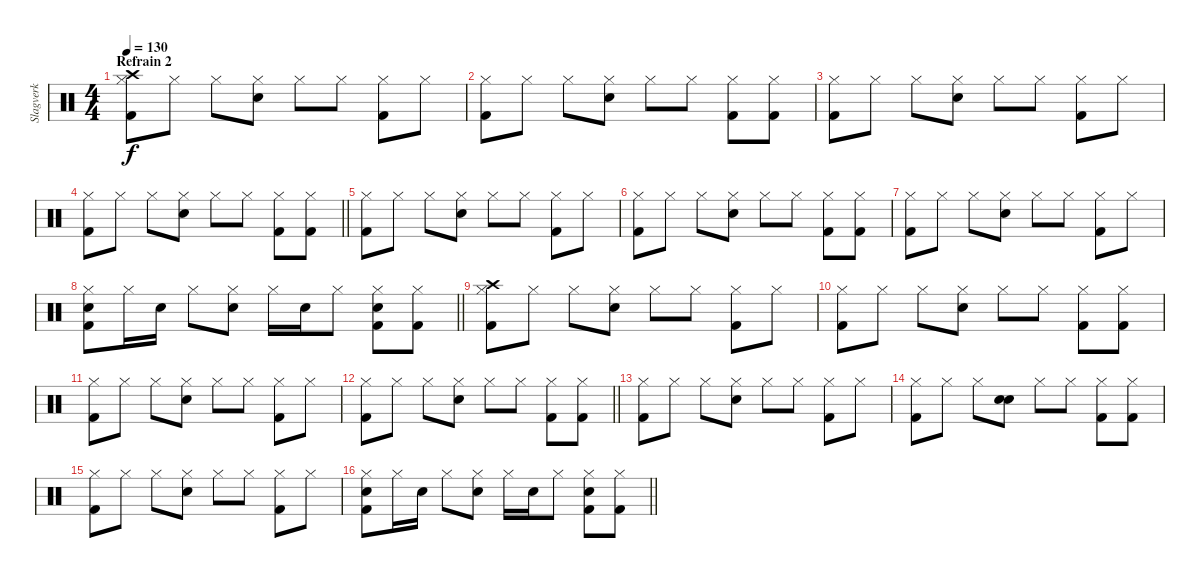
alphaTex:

\track ("Slagverk" "Slagverk") {instrument percussion}
\staff {score}
\articulation defaults
\ts (4 4)
\section ("" "Refrain 2")
\tempo 130
\clef neutral
\ks c
("Hi-Hat (closed)" "Kick (hit) 2" "Crash high (hit)").8{dy f} "Hi-Hat (closed)".8 "Hi-Hat (closed)".8 ("Hi-Hat (closed)" "Snare (hit) 2").8 "Hi-Hat (closed)".8 "Hi-Hat (closed)".8 ("Hi-Hat (closed)" "Kick (hit) 2").8 "Hi-Hat (closed)".8 |
("Hi-Hat (closed)" "Kick (hit) 2").8 "Hi-Hat (closed)".8 "Hi-Hat (closed)".8 ("Hi-Hat (closed)" "Snare (hit) 2").8 "Hi-Hat (closed)".8 "Hi-Hat (closed)".8 ("Hi-Hat (closed)" "Kick (hit) 2").8 ("Hi-Hat (closed)" "Kick (hit) 2").8 |
("Hi-Hat (closed)" "Kick (hit) 2").8 "Hi-Hat (closed)".8 "Hi-Hat (closed)".8 ("Hi-Hat (closed)" "Snare (hit) 2").8 "Hi-Hat (closed)".8 "Hi-Hat (closed)".8 ("Hi-Hat (closed)" "Kick (hit) 2").8 "Hi-Hat (closed)".8 |
\barLineRight lightlight
("Hi-Hat (closed)" "Kick (hit) 2").8 "Hi-Hat (closed)".8 "Hi-Hat (closed)".8 ("Hi-Hat (closed)" "Snare (hit) 2").8 "Hi-Hat (closed)".8 "Hi-Hat (closed)".8 ("Hi-Hat (closed)" "Kick (hit) 2").8 ("Hi-Hat (closed)" "Kick (hit) 2").8 |
("Hi-Hat (closed)" "Kick (hit) 2").8 "Hi-Hat (closed)".8 "Hi-Hat (closed)".8 ("Hi-Hat (closed)" "Snare (hit) 2").8 "Hi-Hat (closed)".8 "Hi-Hat (closed)".8 ("Hi-Hat (closed)" "Kick (hit) 2").8 "Hi-Hat (closed)".8 |
("Hi-Hat (closed)" "Kick (hit) 2").8 "Hi-Hat (closed)".8 "Hi-Hat (closed)".8 ("Hi-Hat (closed)" "Snare (hit) 2").8 "Hi-Hat (closed)".8 "Hi-Hat (closed)".8 ("Hi-Hat (closed)" "Kick (hit) 2").8 ("Hi-Hat (closed)" "Kick (hit) 2").8 |
("Hi-Hat (closed)" "Kick (hit) 2").8 "Hi-Hat (closed)".8 "Hi-Hat (closed)".8 ("Hi-Hat (closed)" "Snare (hit) 2").8 "Hi-Hat (closed)".8 "Hi-Hat (closed)".8 ("Hi-Hat (closed)" "Kick (hit) 2").8 "Hi-Hat (closed)".8 |
\barLineRight lightlight
("Hi-Hat (closed)" "Snare (hit) 2" "Kick (hit) 2").8 "Hi-Hat (closed)".16 "Snare (hit) 2".16 "Hi-Hat (closed)".8 ("Hi-Hat (closed)" "Snare (hit) 2").8 "Hi-Hat (closed)".16 "Snare (hit) 2".16 "Hi-Hat (closed)".8 ("Hi-Hat (closed)" "Snare (hit) 2" "Kick (hit) 2").8 ("Hi-Hat (closed)" "Kick (hit) 2").8 |
("Hi-Hat (closed)" "Kick (hit) 2" "Crash high (hit)").8 "Hi-Hat (closed)".8 "Hi-Hat (closed)".8 ("Hi-Hat (closed)" "Snare (hit) 2").8 "Hi-Hat (closed)".8 "Hi-Hat (closed)".8 ("Hi-Hat (closed)" "Kick (hit) 2").8 "Hi-Hat (closed)".8 |
("Hi-Hat (closed)" "Kick (hit) 2").8 "Hi-Hat (closed)".8 "Hi-Hat (closed)".8 ("Hi-Hat (closed)" "Snare (hit) 2").8 "Hi-Hat (closed)".8 "Hi-Hat (closed)".8 ("Hi-Hat (closed)" "Kick (hit) 2").8 ("Hi-Hat (closed)" "Kick (hit) 2").8 |
("Hi-Hat (closed)" "Kick (hit) 2").8 "Hi-Hat (closed)".8 "Hi-Hat (closed)".8 ("Hi-Hat (closed)" "Snare (hit) 2").8 "Hi-Hat (closed)".8 "Hi-Hat (closed)".8 ("Hi-Hat (closed)" "Kick (hit) 2").8 "Hi-Hat (closed)".8 |
\barLineRight lightlight
("Hi-Hat (closed)" "Kick (hit) 2").8 "Hi-Hat (closed)".8 "Hi-Hat (closed)".8 ("Hi-Hat (closed)" "Snare (hit) 2").8 "Hi-Hat (closed)".8 "Hi-Hat (closed)".8 ("Hi-Hat (closed)" "Kick (hit) 2").8 ("Hi-Hat (closed)" "Kick (hit) 2").8 |
("Hi-Hat (closed)" "Kick (hit) 2").8 "Hi-Hat (closed)".8 "Hi-Hat (closed)".8 ("Hi-Hat (closed)" "Snare (hit) 2").8 "Hi-Hat (closed)".8 "Hi-Hat (closed)".8 ("Hi-Hat (closed)" "Kick (hit) 2").8 "Hi-Hat (closed)".8 |
("Hi-Hat (closed)" "Kick (hit) 2").8 "Hi-Hat (closed)".8 "Hi-Hat (closed)".8 ("Snare (hit)" "Snare (hit) 2").8 "Hi-Hat (closed)".8 "Hi-Hat (closed)".8 ("Hi-Hat (closed)" "Kick (hit) 2").8 ("Hi-Hat (closed)" "Kick (hit) 2").8 |
("Hi-Hat (closed)" "Kick (hit) 2").8 "Hi-Hat (closed)".8 "Hi-Hat (closed)".8 ("Hi-Hat (closed)" "Snare (hit) 2").8 "Hi-Hat (closed)".8 "Hi-Hat (closed)".8 ("Hi-Hat (closed)" "Kick (hit) 2").8 "Hi-Hat (closed)".8 |
\barLineRight lightlight
("Hi-Hat (closed)" "Snare (hit) 2" "Kick (hit) 2").8 "Hi-Hat (closed)".16 "Snare (hit) 2".16 "Hi-Hat (closed)".8 ("Hi-Hat (closed)" "Snare (hit) 2").8 "Hi-Hat (closed)".16 "Snare (hit) 2".16 "Hi-Hat (closed)".8 ("Hi-Hat (closed)" "Snare (hit) 2" "Kick (hit) 2").8 ("Hi-Hat (closed)" "Kick (hit) 2").8
